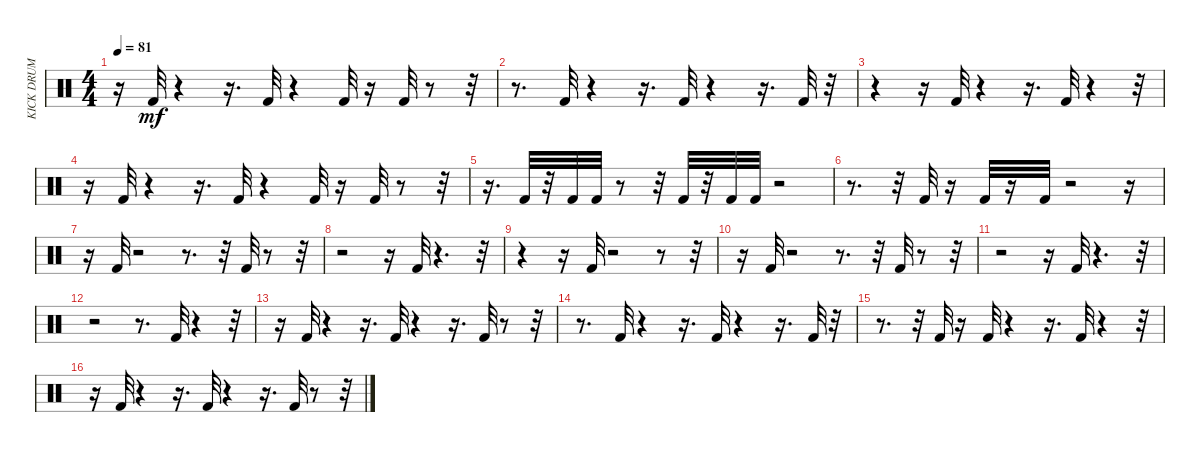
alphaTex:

\track ("KICK DRUM LOW." "KICK DRUM ") {instrument percussion}
\staff {score}
\articulation defaults
\ts (4 4)
\tempo 81
\clef neutral
\ks c
r.16{dy mf} "Kick (hit) 2".32 r.4 r.16{d} "Kick (hit) 2".32 r.4 "Kick (hit) 2".32 r.16 "Kick (hit) 2".32 r.8 r.32 |
r.8{d} "Kick (hit) 2".32 r.4 r.16{d} "Kick (hit) 2".32 r.4 r.16{d} "Kick (hit) 2".32 r.32 |
r.4 r.16 "Kick (hit) 2".32 r.4 r.16{d} "Kick (hit) 2".32 r.4 r.32 |
r.16 "Kick (hit) 2".32 r.4 r.16{d} "Kick (hit) 2".32 r.4 "Kick (hit) 2".32 r.16 "Kick (hit) 2".32 r.8 r.32 |
r.16{d} "Kick (hit) 2".32 r.32 "Kick (hit) 2".32 "Kick (hit) 2".32 r.8 r.32 "Kick (hit) 2".32 r.32 "Kick (hit) 2".32 "Kick (hit) 2".32 r.2 |
r.8{d} r.32 "Kick (hit) 2".32 r.16 "Kick (hit) 2".32 r.16 "Kick (hit) 2".32 r.2 r.16 |
r.16 "Kick (hit) 2".32 r.2 r.8{d} r.32 "Kick (hit) 2".32 r.8 r.32 |
r.2 r.16 "Kick (hit) 2".32 r.4{d} r.32 |
r.4 r.16 "Kick (hit) 2".32 r.2 r.8 r.32 |
r.16 "Kick (hit) 2".32 r.2 r.8{d} r.32 "Kick (hit) 2".32 r.8 r.32 |
r.2 r.16 "Kick (hit) 2".32 r.4{d} r.32 |
r.2 r.8{d} "Kick (hit) 2".32 r.4 r.32 |
r.16 "Kick (hit) 2".32 r.4 r.16{d} "Kick (hit) 2".32 r.4 r.16{d} "Kick (hit) 2".32 r.8 r.32 |
r.8{d} "Kick (hit) 2".32 r.4 r.16{d} "Kick (hit) 2".32 r.4 r.16{d} "Kick (hit) 2".32 r.32 |
r.8{d} r.32 "Kick (hit) 2".32 r.16 "Kick (hit) 2".32 r.4 r.16{d} "Kick (hit) 2".32 r.4 r.32 |
r.16 "Kick (hit) 2".32 r.4 r.16{d} "Kick (hit) 2".32 r.4 r.16{d} "Kick (hit) 2".32 r.8 r.32
